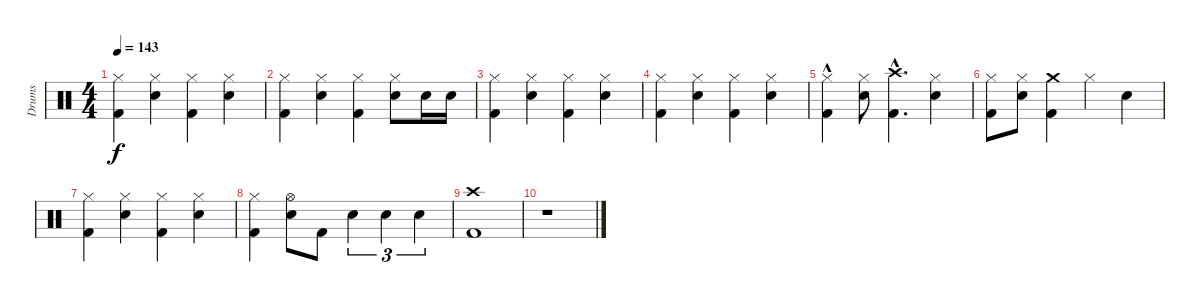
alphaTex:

\track ("Drums" "Drums") {instrument percussion}
\staff {score}
\articulation defaults
\ts (4 4)
\tempo 143
\clef neutral
\ks c
("Hi-Hat (closed)" "Kick (hit) 2").4{dy f} ("Hi-Hat (closed)" "Electric Snare (hit)").4 ("Hi-Hat (closed)" "Kick (hit) 2").4 ("Hi-Hat (closed)" "Electric Snare (hit)").4 |
("Hi-Hat (closed)" "Kick (hit) 2").4 ("Hi-Hat (closed)" "Electric Snare (hit)").4 ("Hi-Hat (closed)" "Kick (hit) 2").4 ("Hi-Hat (closed)" "Electric Snare (hit)").8 "Electric Snare (hit)".16 "Electric Snare (hit)".16 |
("Hi-Hat (closed)" "Kick (hit) 2").4 ("Hi-Hat (closed)" "Electric Snare (hit)").4 ("Hi-Hat (closed)" "Kick (hit) 2").4 ("Hi-Hat (closed)" "Electric Snare (hit)").4 |
("Hi-Hat (closed)" "Kick (hit) 2").4 ("Hi-Hat (closed)" "Electric Snare (hit)").4 ("Hi-Hat (closed)" "Kick (hit) 2").4 ("Hi-Hat (closed)" "Electric Snare (hit)").4 |
("Hi-Hat (closed)"{hac} "Kick (hit) 2").4 ("Hi-Hat (closed)" "Electric Snare (hit)").8 ("Crash high (hit)"{hac} "Kick (hit) 2"{hac}).4{d} ("Hi-Hat (closed)" "Electric Snare (hit)").4 |
("Hi-Hat (closed)" "Kick (hit) 2").8 ("Hi-Hat (closed)" "Electric Snare (hit)").8 ("Crash medium (hit)" "Kick (hit) 2").4 "Hi-Hat (closed)".4 "Electric Snare (hit)".4 |
("Hi-Hat (closed)" "Kick (hit) 2").4 ("Hi-Hat (closed)" "Electric Snare (hit)").4 ("Hi-Hat (closed)" "Kick (hit) 2").4 ("Hi-Hat (closed)" "Electric Snare (hit)").4 |
("Hi-Hat (closed)" "Kick (hit) 2").4 ("Hi-Hat (open)" "Electric Snare (hit)").8 "Kick (hit) 2".8 "Electric Snare (hit)".4{tu (3 2)} "Electric Snare (hit)".4{tu (3 2)} "Electric Snare (hit)".4{tu (3 2)} |
("Crash high (hit)" "Kick (hit) 2").1 |
r.1
